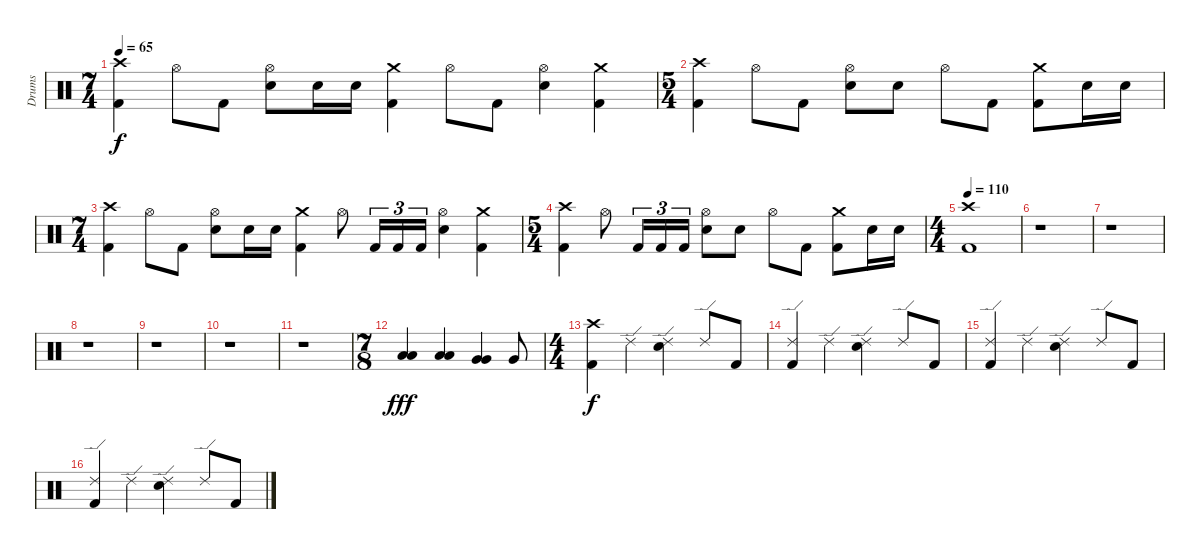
\track ("Drums" "Drums") {instrument percussion}
\staff {score}
\articulation defaults
\ts (7 4)
\tempo 65
\clef neutral
\ks c
("Crash high (hit)" "Kick (hit) 2").4{dy f} "Hi-Hat (open)".8 "Kick (hit) 2".8 ("Hi-Hat (open)" "Electric Snare (hit)").8 "Electric Snare (hit)".16 "Electric Snare (hit)".16 ("Crash medium (hit)" "Kick (hit) 2").4 "Hi-Hat (open)".8 "Kick (hit) 2".8 ("Hi-Hat (open)" "Electric Snare (hit)").4 ("Crash medium (hit)" "Kick (hit) 2").4 |
\ts (5 4)
("Crash high (hit)" "Kick (hit) 2").4 "Hi-Hat (open)".8 "Kick (hit) 2".8 ("Hi-Hat (open)" "Electric Snare (hit)").8 "Electric Snare (hit)".8 "Hi-Hat (open)".8 "Kick (hit) 2".8 ("Crash medium (hit)" "Kick (hit) 2").8 "Electric Snare (hit)".16 "Electric Snare (hit)".16 |
\ts (7 4)
("Crash high (hit)" "Kick (hit) 2").4 "Hi-Hat (open)".8 "Kick (hit) 2".8 ("Hi-Hat (open)" "Electric Snare (hit)").8 "Electric Snare (hit)".16 "Electric Snare (hit)".16 ("Crash medium (hit)" "Kick (hit) 2").4 "Hi-Hat (open)".8 "Kick (hit) 2".16{tu (3 2)} "Kick (hit) 2".16{tu (3 2)} "Kick (hit) 2".16{tu (3 2)} ("Hi-Hat (open)" "Electric Snare (hit)").4 ("Crash medium (hit)" "Kick (hit) 2").4 |
\ts (5 4)
("Crash high (hit)" "Kick (hit) 2").4 "Hi-Hat (open)".8 "Kick (hit) 2".16{tu (3 2)} "Kick (hit) 2".16{tu (3 2)} "Kick (hit) 2".16{tu (3 2)} ("Hi-Hat (open)" "Electric Snare (hit)").8 "Electric Snare (hit)".8 "Hi-Hat (open)".8 "Kick (hit) 2".8 ("Crash medium (hit)" "Kick (hit) 2").8 "Electric Snare (hit)".16 "Electric Snare (hit)".16 |
\ts (4 4)
\tempo 110
("Crash high (hit)" "Kick (hit) 2").1 |
r.1 |
r.1 |
r.1 |
r.1 |
r.1 |
r.1 |
\ts (7 8)
("Low Tom (hit)" "Low Tom (hit)").4{bu 60 dy fff} ("Low Tom (hit)" "Low Tom (hit)").4{bu 60} ("Very Low Tom (hit)" "Very Low Tom (hit)").4{bu 60} "Very Low Tom (hit)".8 |
\ts (4 4)
("Crash high (hit)" "Kick (hit) 2").4{dy f} "Ride (edge) 2".4 ("Ride (edge) 2" "Electric Snare (hit)").4 "Ride (edge) 2".8 "Kick (hit) 2".8 |
("Ride (edge) 2" "Kick (hit) 2").4 "Ride (edge) 2".4 ("Ride (edge) 2" "Electric Snare (hit)").4 "Ride (edge) 2".8 "Kick (hit) 2".8 |
("Ride (edge) 2" "Kick (hit) 2").4 "Ride (edge) 2".4 ("Ride (edge) 2" "Electric Snare (hit)").4 "Ride (edge) 2".8 "Kick (hit) 2".8 |
("Ride (edge) 2" "Kick (hit) 2").4 "Ride (edge) 2".4 ("Ride (edge) 2" "Electric Snare (hit)").4 "Ride (edge) 2".8 "Kick (hit) 2".8
